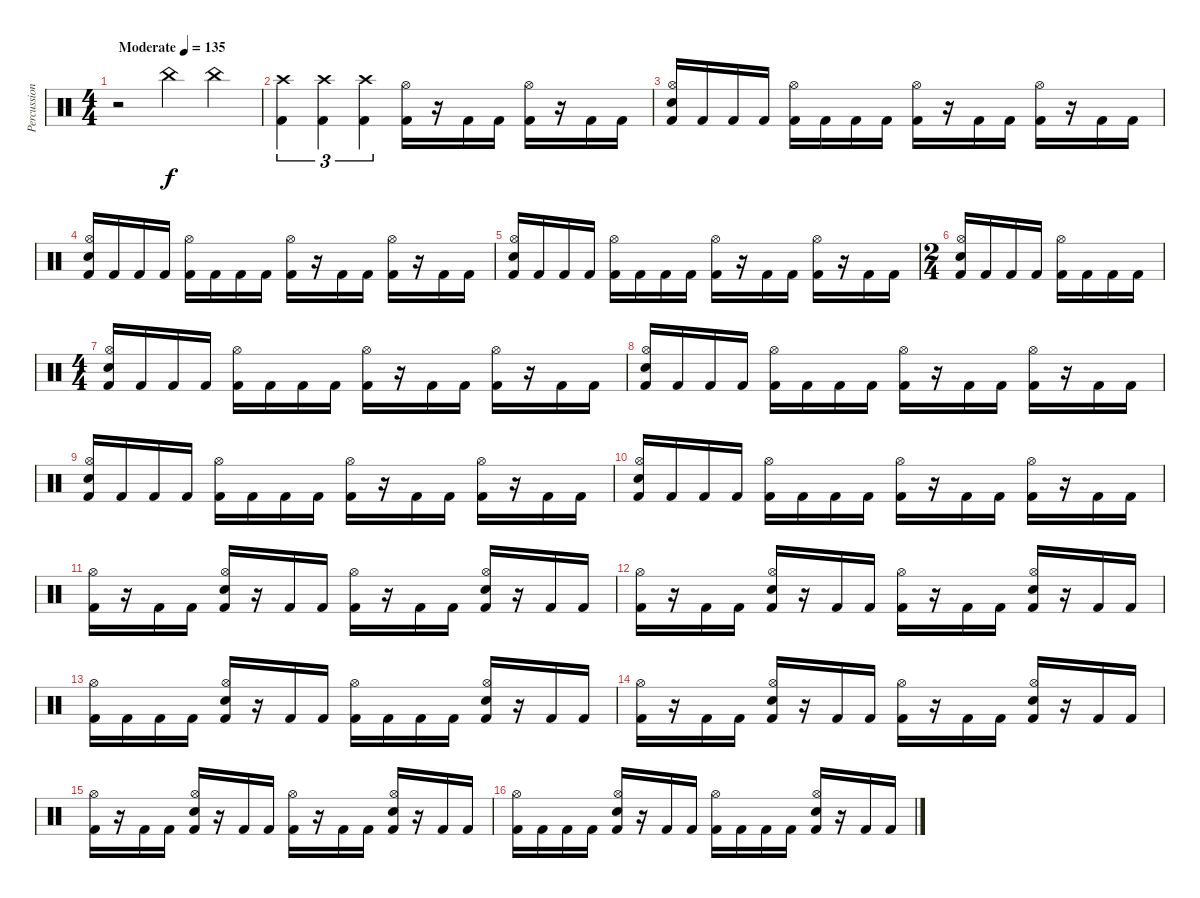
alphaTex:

\track ("Percussions" "Percussion") {instrument percussion}
\staff {score}
\articulation defaults
\ts (4 4)
\tempo (135 "Moderate")
\clef neutral
\ks c
r.2{dy f} "China (hit)".4 "China (hit)".4 |
("Crash high (hit)" "Kick (hit) 2").4{tu (3 2)} ("Crash high (hit)" "Kick (hit) 2").4{tu (3 2)} ("Crash high (hit)" "Kick (hit) 2").4{tu (3 2)} ("Hi-Hat (open)" "Kick (hit) 2").16 r.16 "Kick (hit) 2".16 "Kick (hit) 2".16 ("Hi-Hat (open)" "Kick (hit) 2").16 r.16 "Kick (hit) 2".16 "Kick (hit) 2".16 |
("Hi-Hat (open)" "Snare (hit) 2" "Kick (hit) 2").16 "Kick (hit) 2".16 "Kick (hit) 2".16 "Kick (hit) 2".16 ("Hi-Hat (open)" "Kick (hit) 2").16 "Kick (hit) 2".16 "Kick (hit) 2".16 "Kick (hit) 2".16 ("Hi-Hat (open)" "Kick (hit) 2").16 r.16 "Kick (hit) 2".16 "Kick (hit) 2".16 ("Hi-Hat (open)" "Kick (hit) 2").16 r.16 "Kick (hit) 2".16 "Kick (hit) 2".16 |
("Hi-Hat (open)" "Snare (hit) 2" "Kick (hit) 2").16 "Kick (hit) 2".16 "Kick (hit) 2".16 "Kick (hit) 2".16 ("Hi-Hat (open)" "Kick (hit) 2").16 "Kick (hit) 2".16 "Kick (hit) 2".16 "Kick (hit) 2".16 ("Hi-Hat (open)" "Kick (hit) 2").16 r.16 "Kick (hit) 2".16 "Kick (hit) 2".16 ("Hi-Hat (open)" "Kick (hit) 2").16 r.16 "Kick (hit) 2".16 "Kick (hit) 2".16 |
("Hi-Hat (open)" "Snare (hit) 2" "Kick (hit) 2").16 "Kick (hit) 2".16 "Kick (hit) 2".16 "Kick (hit) 2".16 ("Hi-Hat (open)" "Kick (hit) 2").16 "Kick (hit) 2".16 "Kick (hit) 2".16 "Kick (hit) 2".16 ("Hi-Hat (open)" "Kick (hit) 2").16 r.16 "Kick (hit) 2".16 "Kick (hit) 2".16 ("Hi-Hat (open)" "Kick (hit) 2").16 r.16 "Kick (hit) 2".16 "Kick (hit) 2".16 |
\ts (2 4)
("Hi-Hat (open)" "Snare (hit) 2" "Kick (hit) 2").16 "Kick (hit) 2".16 "Kick (hit) 2".16 "Kick (hit) 2".16 ("Hi-Hat (open)" "Kick (hit) 2").16 "Kick (hit) 2".16 "Kick (hit) 2".16 "Kick (hit) 2".16 |
\ts (4 4)
("Hi-Hat (open)" "Snare (hit) 2" "Kick (hit) 2").16 "Kick (hit) 2".16 "Kick (hit) 2".16 "Kick (hit) 2".16 ("Hi-Hat (open)" "Kick (hit) 2").16 "Kick (hit) 2".16 "Kick (hit) 2".16 "Kick (hit) 2".16 ("Hi-Hat (open)" "Kick (hit) 2").16 r.16 "Kick (hit) 2".16 "Kick (hit) 2".16 ("Hi-Hat (open)" "Kick (hit) 2").16 r.16 "Kick (hit) 2".16 "Kick (hit) 2".16 |
("Hi-Hat (open)" "Snare (hit) 2" "Kick (hit) 2").16 "Kick (hit) 2".16 "Kick (hit) 2".16 "Kick (hit) 2".16 ("Hi-Hat (open)" "Kick (hit) 2").16 "Kick (hit) 2".16 "Kick (hit) 2".16 "Kick (hit) 2".16 ("Hi-Hat (open)" "Kick (hit) 2").16 r.16 "Kick (hit) 2".16 "Kick (hit) 2".16 ("Hi-Hat (open)" "Kick (hit) 2").16 r.16 "Kick (hit) 2".16 "Kick (hit) 2".16 |
("Hi-Hat (open)" "Snare (hit) 2" "Kick (hit) 2").16 "Kick (hit) 2".16 "Kick (hit) 2".16 "Kick (hit) 2".16 ("Hi-Hat (open)" "Kick (hit) 2").16 "Kick (hit) 2".16 "Kick (hit) 2".16 "Kick (hit) 2".16 ("Hi-Hat (open)" "Kick (hit) 2").16 r.16 "Kick (hit) 2".16 "Kick (hit) 2".16 ("Hi-Hat (open)" "Kick (hit) 2").16 r.16 "Kick (hit) 2".16 "Kick (hit) 2".16 |
("Hi-Hat (open)" "Snare (hit) 2" "Kick (hit) 2").16 "Kick (hit) 2".16 "Kick (hit) 2".16 "Kick (hit) 2".16 ("Hi-Hat (open)" "Kick (hit) 2").16 "Kick (hit) 2".16 "Kick (hit) 2".16 "Kick (hit) 2".16 ("Hi-Hat (open)" "Kick (hit) 2").16 r.16 "Kick (hit) 2".16 "Kick (hit) 2".16 ("Hi-Hat (open)" "Kick (hit) 2").16 r.16 "Kick (hit) 2".16 "Kick (hit) 2".16 |
("Hi-Hat (open)" "Kick (hit) 2").16 r.16 "Kick (hit) 2".16 "Kick (hit) 2".16 ("Hi-Hat (open)" "Snare (hit) 2" "Kick (hit) 2").16 r.16 "Kick (hit) 2".16 "Kick (hit) 2".16 ("Hi-Hat (open)" "Kick (hit) 2").16 r.16 "Kick (hit) 2".16 "Kick (hit) 2".16 ("Hi-Hat (open)" "Snare (hit) 2" "Kick (hit) 2").16 r.16 "Kick (hit) 2".16 "Kick (hit) 2".16 |
("Hi-Hat (open)" "Kick (hit) 2").16 r.16 "Kick (hit) 2".16 "Kick (hit) 2".16 ("Hi-Hat (open)" "Snare (hit) 2" "Kick (hit) 2").16 r.16 "Kick (hit) 2".16 "Kick (hit) 2".16 ("Hi-Hat (open)" "Kick (hit) 2").16 r.16 "Kick (hit) 2".16 "Kick (hit) 2".16 ("Hi-Hat (open)" "Snare (hit) 2" "Kick (hit) 2").16 r.16 "Kick (hit) 2".16 "Kick (hit) 2".16 |
("Hi-Hat (open)" "Kick (hit) 2").16 "Kick (hit) 2".16 "Kick (hit) 2".16 "Kick (hit) 2".16 ("Hi-Hat (open)" "Snare (hit) 2" "Kick (hit) 2").16 r.16 "Kick (hit) 2".16 "Kick (hit) 2".16 ("Hi-Hat (open)" "Kick (hit) 2").16 "Kick (hit) 2".16 "Kick (hit) 2".16 "Kick (hit) 2".16 ("Hi-Hat (open)" "Snare (hit) 2" "Kick (hit) 2").16 r.16 "Kick (hit) 2".16 "Kick (hit) 2".16 |
("Hi-Hat (open)" "Kick (hit) 2").16 r.16 "Kick (hit) 2".16 "Kick (hit) 2".16 ("Hi-Hat (open)" "Snare (hit) 2" "Kick (hit) 2").16 r.16 "Kick (hit) 2".16 "Kick (hit) 2".16 ("Hi-Hat (open)" "Kick (hit) 2").16 r.16 "Kick (hit) 2".16 "Kick (hit) 2".16 ("Hi-Hat (open)" "Snare (hit) 2" "Kick (hit) 2").16 r.16 "Kick (hit) 2".16 "Kick (hit) 2".16 |
("Hi-Hat (open)" "Kick (hit) 2").16 r.16 "Kick (hit) 2".16 "Kick (hit) 2".16 ("Hi-Hat (open)" "Snare (hit) 2" "Kick (hit) 2").16 r.16 "Kick (hit) 2".16 "Kick (hit) 2".16 ("Hi-Hat (open)" "Kick (hit) 2").16 r.16 "Kick (hit) 2".16 "Kick (hit) 2".16 ("Hi-Hat (open)" "Snare (hit) 2" "Kick (hit) 2").16 r.16 "Kick (hit) 2".16 "Kick (hit) 2".16 |
("Hi-Hat (open)" "Kick (hit) 2").16 "Kick (hit) 2".16 "Kick (hit) 2".16 "Kick (hit) 2".16 ("Hi-Hat (open)" "Snare (hit) 2" "Kick (hit) 2").16 r.16 "Kick (hit) 2".16 "Kick (hit) 2".16 ("Hi-Hat (open)" "Kick (hit) 2").16 "Kick (hit) 2".16 "Kick (hit) 2".16 "Kick (hit) 2".16 ("Hi-Hat (open)" "Snare (hit) 2" "Kick (hit) 2").16 r.16 "Kick (hit) 2".16 "Kick (hit) 2".16
